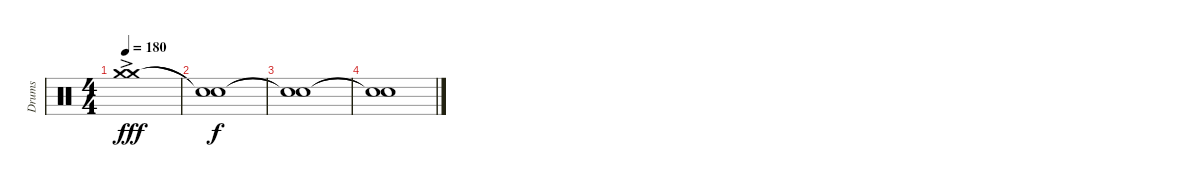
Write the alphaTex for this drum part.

\track ("Drums" "Drums") {instrument percussion}
\staff {score}
\articulation defaults
\ts (4 4)
\tempo 180
\clef neutral
\ks c
("Crash medium (hit)"{ac} "Crash medium (hit)"{ac}).1{dy fff} |
("Snare (hit)"{t} "Snare (hit)"{t}).1{dy f} |
("Snare (hit)"{t} "Snare (hit)"{t}).1 |
("Snare (hit)"{t} "Snare (hit)"{t}).1
